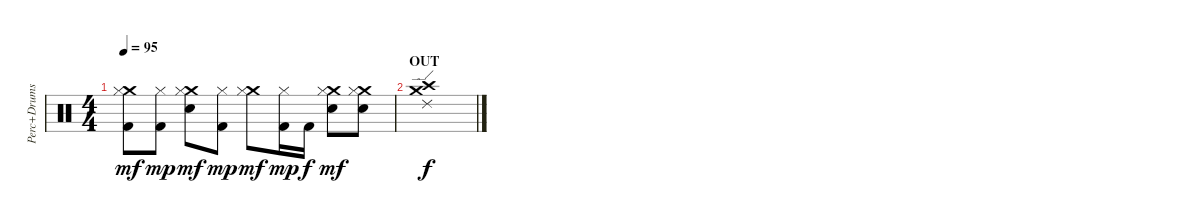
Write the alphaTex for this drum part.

\track ("Perc+Drums" "Perc+Drums") {instrument percussion}
\staff {score}
\articulation defaults
\ts (4 4)
\tempo 95
\clef neutral
\ks c
("Crash medium (hit)" "Hi-Hat (closed)" "Kick (hit) 2").8{dy mf} ("Hi-Hat (closed)" "Kick (hit) 2").8{dy mp} ("Crash medium (hit)" "Snare (hit) 2" "Hi-Hat (closed)").8{dy mf} ("Hi-Hat (closed)" "Kick (hit) 2").8{dy mp} ("Crash medium (hit)" "Hi-Hat (closed)").8{dy mf} ("Hi-Hat (closed)" "Kick (hit) 2").16{dy mp} "Kick (hit) 2".16{dy f} ("Crash medium (hit)" "Snare (hit) 2" "Hi-Hat (closed)").8{dy mf} ("Crash medium (hit)" "Snare (hit) 2" "Hi-Hat (closed)").8 |
\section ("" "OUT")
("Crash high (hit)" "Ride (edge) 2" "Crash medium (hit)").1{dy f}
